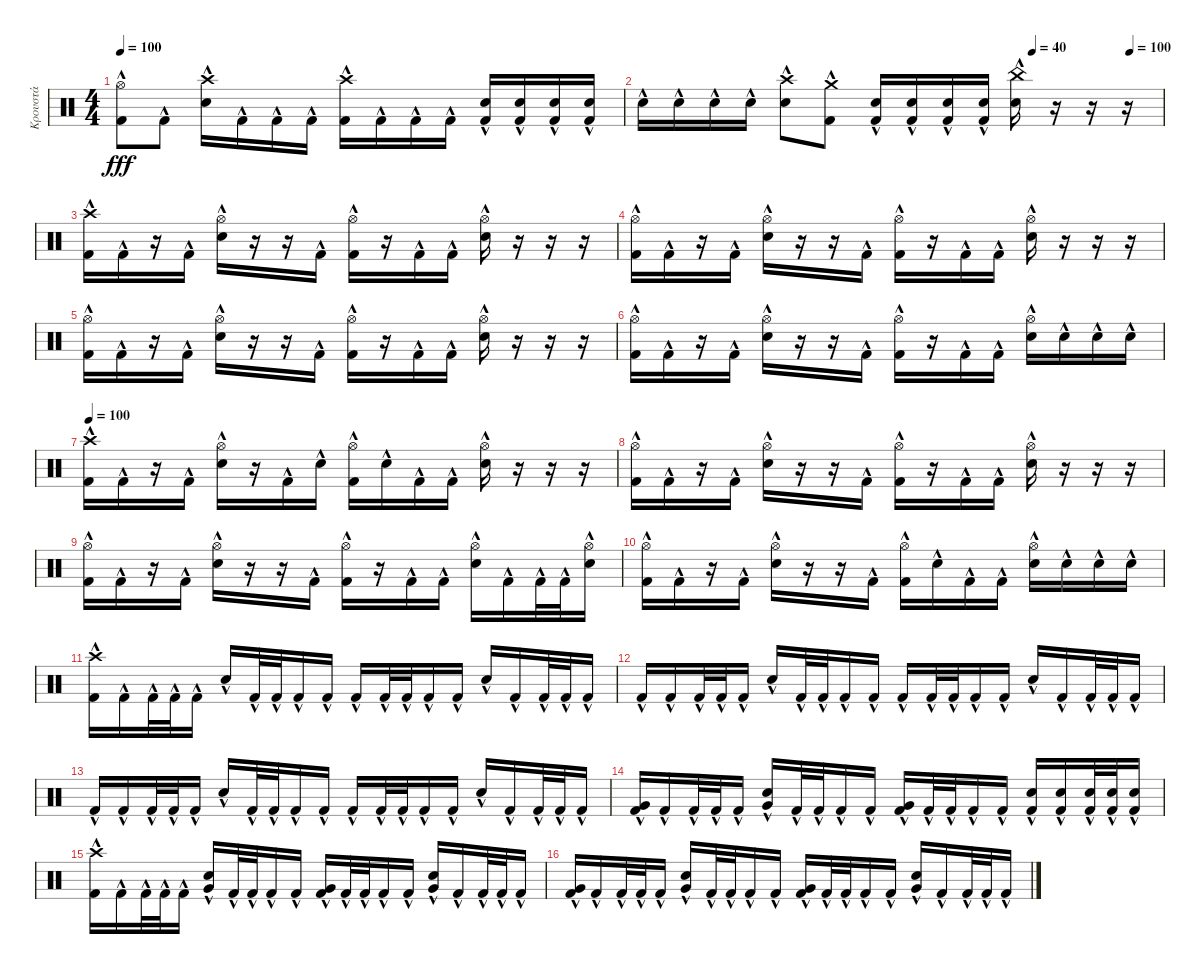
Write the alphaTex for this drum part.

\track ("Κρουστά" "Κρουστά") {instrument percussion}
\staff {score}
\articulation defaults
\ts (4 4)
\tempo 100
\clef neutral
\ks c
("Kick (hit) 2"{hac} "Hi-Hat (open)").8{dy fff} "Kick (hit) 2"{hac}.8 ("Electric Snare (hit)"{hac} "Crash high (hit)").16 "Kick (hit) 2"{hac}.16 "Kick (hit) 2"{hac}.16 "Kick (hit) 2"{hac}.16 ("Kick (hit) 2"{hac} "Crash high (hit)").16 "Kick (hit) 2"{hac}.16 "Kick (hit) 2"{hac}.16 "Kick (hit) 2"{hac}.16 ("Electric Snare (hit)"{hac} "Kick (hit) 2"{hac}).16 ("Kick (hit) 2"{hac} "Electric Snare (hit)"{hac}).16 ("Kick (hit) 2"{hac} "Electric Snare (hit)"{hac}).16 ("Kick (hit) 2"{hac} "Electric Snare (hit)"{hac}).16 |
\tempo (100 0.9375)
\tempo (40 0.75)
"Electric Snare (hit)"{hac}.16 "Electric Snare (hit)"{hac}.16 "Electric Snare (hit)"{hac}.16 "Electric Snare (hit)"{hac}.16 ("Crash high (hit)" "Electric Snare (hit)"{hac}).8 ("Crash medium (hit)" "Kick (hit) 2"{hac}).8 ("Kick (hit) 2"{hac} "Electric Snare (hit)"{hac}).16 ("Kick (hit) 2"{hac} "Electric Snare (hit)"{hac}).16 ("Kick (hit) 2"{hac} "Electric Snare (hit)"{hac}).16 ("Kick (hit) 2"{hac} "Electric Snare (hit)"{hac}).16 ("Electric Snare (hit)"{hac} "China (hit)").16 r.16 r.16 r.16 |
("Kick (hit) 2"{hac} "Crash high (hit)").16 "Kick (hit) 2"{hac}.16 r.16 "Kick (hit) 2"{hac}.16 ("Electric Snare (hit)"{hac} "Hi-Hat (open)").16 r.16 r.16 "Kick (hit) 2"{hac}.16 ("Kick (hit) 2"{hac} "Hi-Hat (open)").16 r.16 "Kick (hit) 2"{hac}.16 "Kick (hit) 2"{hac}.16 ("Electric Snare (hit)"{hac} "Hi-Hat (open)").16 r.16 r.16 r.16 |
("Kick (hit) 2"{hac} "Hi-Hat (open)").16 "Kick (hit) 2"{hac}.16 r.16 "Kick (hit) 2"{hac}.16 ("Electric Snare (hit)"{hac} "Hi-Hat (open)").16 r.16 r.16 "Kick (hit) 2"{hac}.16 ("Kick (hit) 2"{hac} "Hi-Hat (open)").16 r.16 "Kick (hit) 2"{hac}.16 "Kick (hit) 2"{hac}.16 ("Electric Snare (hit)"{hac} "Hi-Hat (open)").16 r.16 r.16 r.16 |
("Kick (hit) 2"{hac} "Hi-Hat (open)").16 "Kick (hit) 2"{hac}.16 r.16 "Kick (hit) 2"{hac}.16 ("Electric Snare (hit)"{hac} "Hi-Hat (open)").16 r.16 r.16 "Kick (hit) 2"{hac}.16 ("Kick (hit) 2"{hac} "Hi-Hat (open)").16 r.16 "Kick (hit) 2"{hac}.16 "Kick (hit) 2"{hac}.16 ("Electric Snare (hit)"{hac} "Hi-Hat (open)").16 r.16 r.16 r.16 |
("Kick (hit) 2"{hac} "Hi-Hat (open)").16 "Kick (hit) 2"{hac}.16 r.16 "Kick (hit) 2"{hac}.16 ("Electric Snare (hit)"{hac} "Hi-Hat (open)").16 r.16 r.16 "Kick (hit) 2"{hac}.16 ("Kick (hit) 2"{hac} "Hi-Hat (open)").16 r.16 "Kick (hit) 2"{hac}.16 "Kick (hit) 2"{hac}.16 ("Electric Snare (hit)"{hac} "Hi-Hat (open)").16 "Electric Snare (hit)"{hac}.16 "Electric Snare (hit)"{hac}.16 "Electric Snare (hit)"{hac}.16 |
\tempo 100
("Kick (hit) 2"{hac} "Crash high (hit)").16 "Kick (hit) 2"{hac}.16 r.16 "Kick (hit) 2"{hac}.16 ("Electric Snare (hit)"{hac} "Hi-Hat (open)").16 r.16 "Kick (hit) 2"{hac}.16 "Electric Snare (hit)"{hac}.16 ("Kick (hit) 2"{hac} "Hi-Hat (open)").16 "Electric Snare (hit)"{hac}.16 "Kick (hit) 2"{hac}.16 "Kick (hit) 2"{hac}.16 ("Electric Snare (hit)"{hac} "Hi-Hat (open)").16 r.16 r.16 r.16 |
("Kick (hit) 2"{hac} "Hi-Hat (open)").16 "Kick (hit) 2"{hac}.16 r.16 "Kick (hit) 2"{hac}.16 ("Electric Snare (hit)"{hac} "Hi-Hat (open)").16 r.16 r.16 "Kick (hit) 2"{hac}.16 ("Kick (hit) 2"{hac} "Hi-Hat (open)").16 r.16 "Kick (hit) 2"{hac}.16 "Kick (hit) 2"{hac}.16 ("Electric Snare (hit)"{hac} "Hi-Hat (open)").16 r.16 r.16 r.16 |
("Kick (hit) 2"{hac} "Hi-Hat (open)").16 "Kick (hit) 2"{hac}.16 r.16 "Kick (hit) 2"{hac}.16 ("Electric Snare (hit)"{hac} "Hi-Hat (open)").16 r.16 r.16 "Kick (hit) 2"{hac}.16 ("Kick (hit) 2"{hac} "Hi-Hat (open)").16 r.16 "Kick (hit) 2"{hac}.16 "Kick (hit) 2"{hac}.16 ("Electric Snare (hit)"{hac} "Hi-Hat (open)").16 "Kick (hit) 2"{hac}.16 "Kick (hit) 2"{hac}.32 "Kick (hit) 2"{hac}.32 ("Electric Snare (hit)"{hac} "Hi-Hat (open)").16 |
("Kick (hit) 2"{hac} "Hi-Hat (open)").16 "Kick (hit) 2"{hac}.16 r.16 "Kick (hit) 2"{hac}.16 ("Electric Snare (hit)"{hac} "Hi-Hat (open)").16 r.16 r.16 "Kick (hit) 2"{hac}.16 ("Kick (hit) 2"{hac} "Hi-Hat (open)").16 "Electric Snare (hit)"{hac}.16 "Kick (hit) 2"{hac}.16 "Kick (hit) 2"{hac}.16 ("Electric Snare (hit)"{hac} "Hi-Hat (open)").16 "Electric Snare (hit)"{hac}.16 "Electric Snare (hit)"{hac}.16 "Electric Snare (hit)"{hac}.16 |
("Kick (hit) 2"{hac} "Crash high (hit)").16 "Kick (hit) 2"{hac}.16 "Kick (hit) 2"{hac}.32 "Kick (hit) 2"{hac}.32 "Kick (hit) 2"{hac}.16 "Electric Snare (hit)"{hac}.16 "Kick (hit) 2"{hac}.32 "Kick (hit) 2"{hac}.32 "Kick (hit) 2"{hac}.16 "Kick (hit) 2"{hac}.16 "Kick (hit) 2"{hac}.16 "Kick (hit) 2"{hac}.32 "Kick (hit) 2"{hac}.32 "Kick (hit) 2"{hac}.16 "Kick (hit) 2"{hac}.16 "Electric Snare (hit)"{hac}.16 "Kick (hit) 2"{hac}.16 "Kick (hit) 2"{hac}.32 "Kick (hit) 2"{hac}.32 "Kick (hit) 2"{hac}.16 |
"Kick (hit) 2"{hac}.16 "Kick (hit) 2"{hac}.16 "Kick (hit) 2"{hac}.32 "Kick (hit) 2"{hac}.32 "Kick (hit) 2"{hac}.16 "Electric Snare (hit)"{hac}.16 "Kick (hit) 2"{hac}.32 "Kick (hit) 2"{hac}.32 "Kick (hit) 2"{hac}.16 "Kick (hit) 2"{hac}.16 "Kick (hit) 2"{hac}.16 "Kick (hit) 2"{hac}.32 "Kick (hit) 2"{hac}.32 "Kick (hit) 2"{hac}.16 "Kick (hit) 2"{hac}.16 "Electric Snare (hit)"{hac}.16 "Kick (hit) 2"{hac}.16 "Kick (hit) 2"{hac}.32 "Kick (hit) 2"{hac}.32 "Kick (hit) 2"{hac}.16 |
"Kick (hit) 2"{hac}.16 "Kick (hit) 2"{hac}.16 "Kick (hit) 2"{hac}.32 "Kick (hit) 2"{hac}.32 "Kick (hit) 2"{hac}.16 "Electric Snare (hit)"{hac}.16 "Kick (hit) 2"{hac}.32 "Kick (hit) 2"{hac}.32 "Kick (hit) 2"{hac}.16 "Kick (hit) 2"{hac}.16 "Kick (hit) 2"{hac}.16 "Kick (hit) 2"{hac}.32 "Kick (hit) 2"{hac}.32 "Kick (hit) 2"{hac}.16 "Kick (hit) 2"{hac}.16 "Electric Snare (hit)"{hac}.16 "Kick (hit) 2"{hac}.16 "Kick (hit) 2"{hac}.32 "Kick (hit) 2"{hac}.32 "Kick (hit) 2"{hac}.16 |
("Kick (hit) 2"{hac} "Very Low Tom (hit)").16 "Kick (hit) 2"{hac}.16 "Kick (hit) 2"{hac}.32 "Kick (hit) 2"{hac}.32 "Kick (hit) 2"{hac}.16 ("Electric Snare (hit)"{hac} "Very Low Tom (hit)").16 "Kick (hit) 2"{hac}.32 "Kick (hit) 2"{hac}.32 "Kick (hit) 2"{hac}.16 "Kick (hit) 2"{hac}.16 ("Kick (hit) 2"{hac} "Very Low Tom (hit)").16 "Kick (hit) 2"{hac}.32 "Kick (hit) 2"{hac}.32 "Kick (hit) 2"{hac}.16 "Kick (hit) 2"{hac}.16 ("Electric Snare (hit)"{hac} "Kick (hit) 2"{hac}).16 ("Kick (hit) 2"{hac} "Electric Snare (hit)"{hac}).16 ("Kick (hit) 2"{hac} "Electric Snare (hit)"{hac}).32 ("Kick (hit) 2"{hac} "Electric Snare (hit)"{hac}).32 ("Kick (hit) 2"{hac} "Electric Snare (hit)"{hac}).16 |
("Kick (hit) 2"{hac} "Crash high (hit)").16 "Kick (hit) 2"{hac}.16 "Kick (hit) 2"{hac}.32 "Kick (hit) 2"{hac}.32 "Kick (hit) 2"{hac}.16 ("Electric Snare (hit)"{hac} "Very Low Tom (hit)").16 "Kick (hit) 2"{hac}.32 "Kick (hit) 2"{hac}.32 "Kick (hit) 2"{hac}.16 "Kick (hit) 2"{hac}.16 ("Kick (hit) 2"{hac} "Very Low Tom (hit)").16 "Kick (hit) 2"{hac}.32 "Kick (hit) 2"{hac}.32 "Kick (hit) 2"{hac}.16 "Kick (hit) 2"{hac}.16 ("Electric Snare (hit)"{hac} "Very Low Tom (hit)").16 "Kick (hit) 2"{hac}.16 "Kick (hit) 2"{hac}.32 "Kick (hit) 2"{hac}.32 "Kick (hit) 2"{hac}.16 |
("Kick (hit) 2"{hac} "Very Low Tom (hit)").16 "Kick (hit) 2"{hac}.16 "Kick (hit) 2"{hac}.32 "Kick (hit) 2"{hac}.32 "Kick (hit) 2"{hac}.16 ("Electric Snare (hit)"{hac} "Very Low Tom (hit)").16 "Kick (hit) 2"{hac}.32 "Kick (hit) 2"{hac}.32 "Kick (hit) 2"{hac}.16 "Kick (hit) 2"{hac}.16 ("Kick (hit) 2"{hac} "Very Low Tom (hit)").16 "Kick (hit) 2"{hac}.32 "Kick (hit) 2"{hac}.32 "Kick (hit) 2"{hac}.16 "Kick (hit) 2"{hac}.16 ("Electric Snare (hit)"{hac} "Very Low Tom (hit)").16 "Kick (hit) 2"{hac}.16 "Kick (hit) 2"{hac}.32 "Kick (hit) 2"{hac}.32 "Kick (hit) 2"{hac}.16
